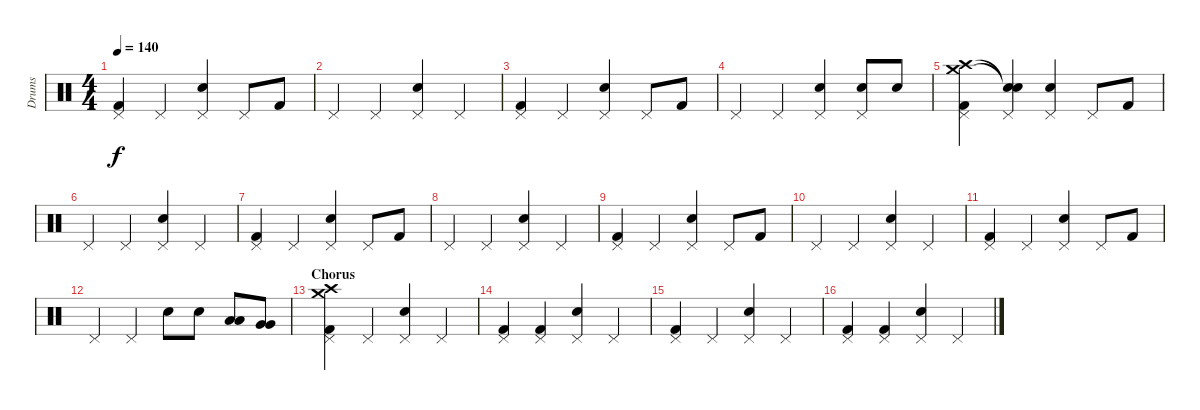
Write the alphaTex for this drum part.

\track ("Drums" "Drums") {instrument percussion}
\staff {score}
\articulation defaults
\ts (4 4)
\tempo 140
\clef neutral
\ks c
("Pedal Hi-Hat (hit)" "Kick (hit) 2").4{dy f} "Pedal Hi-Hat (hit)".4 ("Pedal Hi-Hat (hit)" "Electric Snare (hit)").4 "Pedal Hi-Hat (hit)".8 "Kick (hit) 2".8 |
"Pedal Hi-Hat (hit)".4 "Pedal Hi-Hat (hit)".4 ("Pedal Hi-Hat (hit)" "Electric Snare (hit)").4 "Pedal Hi-Hat (hit)".4 |
("Pedal Hi-Hat (hit)" "Kick (hit) 2").4 "Pedal Hi-Hat (hit)".4 ("Pedal Hi-Hat (hit)" "Electric Snare (hit)").4 "Pedal Hi-Hat (hit)".8 "Kick (hit) 2".8 |
"Pedal Hi-Hat (hit)".4 "Pedal Hi-Hat (hit)".4 ("Pedal Hi-Hat (hit)" "Electric Snare (hit)").4 ("Pedal Hi-Hat (hit)" "Electric Snare (hit)").8 "Electric Snare (hit)".8 |
("Crash medium (hit)" "Pedal Hi-Hat (hit)" "Crash high (hit)" "Kick (hit) 2").4 ("Snare (hit)"{t} "Pedal Hi-Hat (hit)" "Electric Snare (hit)"{t}).4 ("Pedal Hi-Hat (hit)" "Electric Snare (hit)").4 "Pedal Hi-Hat (hit)".8 "Kick (hit) 2".8 |
"Pedal Hi-Hat (hit)".4 "Pedal Hi-Hat (hit)".4 ("Pedal Hi-Hat (hit)" "Electric Snare (hit)").4 "Pedal Hi-Hat (hit)".4 |
("Pedal Hi-Hat (hit)" "Kick (hit) 2").4 "Pedal Hi-Hat (hit)".4 ("Pedal Hi-Hat (hit)" "Electric Snare (hit)").4 "Pedal Hi-Hat (hit)".8 "Kick (hit) 2".8 |
"Pedal Hi-Hat (hit)".4 "Pedal Hi-Hat (hit)".4 ("Pedal Hi-Hat (hit)" "Electric Snare (hit)").4 "Pedal Hi-Hat (hit)".4 |
("Pedal Hi-Hat (hit)" "Kick (hit) 2").4 "Pedal Hi-Hat (hit)".4 ("Pedal Hi-Hat (hit)" "Electric Snare (hit)").4 "Pedal Hi-Hat (hit)".8 "Kick (hit) 2".8 |
"Pedal Hi-Hat (hit)".4 "Pedal Hi-Hat (hit)".4 ("Pedal Hi-Hat (hit)" "Electric Snare (hit)").4 "Pedal Hi-Hat (hit)".4 |
("Pedal Hi-Hat (hit)" "Kick (hit) 2").4 "Pedal Hi-Hat (hit)".4 ("Pedal Hi-Hat (hit)" "Electric Snare (hit)").4 "Pedal Hi-Hat (hit)".8 "Kick (hit) 2".8 |
"Pedal Hi-Hat (hit)".4 "Pedal Hi-Hat (hit)".4 "Snare (hit) 2".8 "Snare (hit) 2".8 ("Low Tom (hit)" "Low Tom (hit)").8 ("Very Low Tom (hit)" "Very Low Tom (hit)").8 |
\section ("" "Chorus")
("Crash high (hit)" "Pedal Hi-Hat (hit)" "Crash medium (hit)" "Kick (hit) 2").4 "Pedal Hi-Hat (hit)".4 ("Pedal Hi-Hat (hit)" "Electric Snare (hit)").4 "Pedal Hi-Hat (hit)".4 |
("Pedal Hi-Hat (hit)" "Kick (hit) 2").4 ("Pedal Hi-Hat (hit)" "Kick (hit) 2").4 ("Pedal Hi-Hat (hit)" "Electric Snare (hit)").4 "Pedal Hi-Hat (hit)".4 |
("Pedal Hi-Hat (hit)" "Kick (hit) 2").4 "Pedal Hi-Hat (hit)".4 ("Pedal Hi-Hat (hit)" "Electric Snare (hit)").4 "Pedal Hi-Hat (hit)".4 |
("Pedal Hi-Hat (hit)" "Kick (hit) 2").4 ("Pedal Hi-Hat (hit)" "Kick (hit) 2").4 ("Pedal Hi-Hat (hit)" "Electric Snare (hit)").4 "Pedal Hi-Hat (hit)".4
